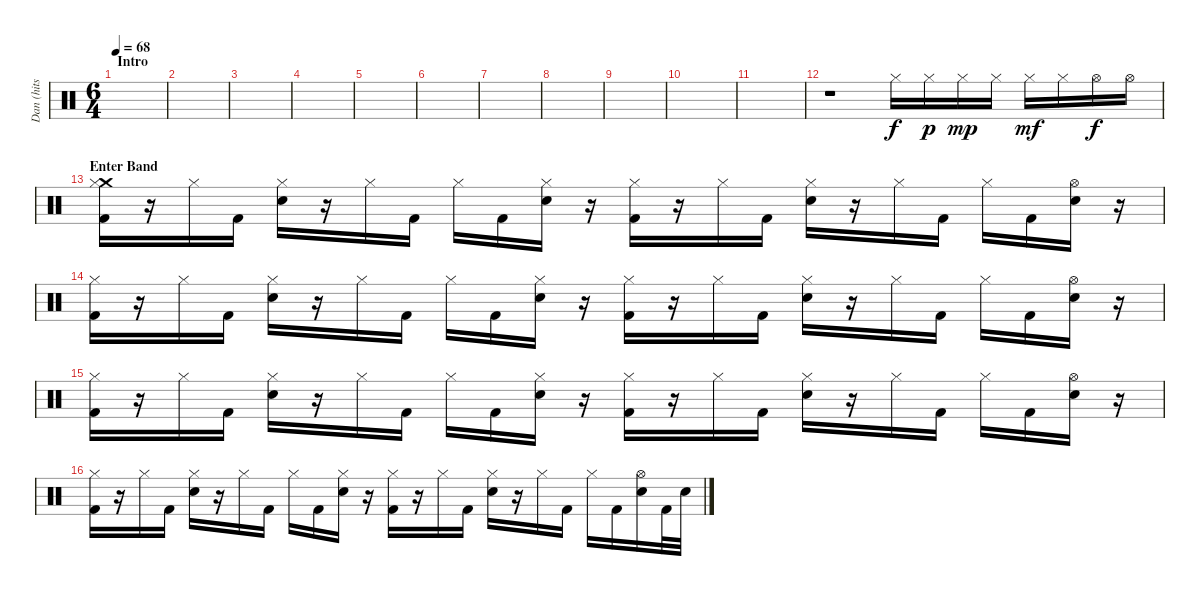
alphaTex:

\track ("Dan (hits stuff. hard)" "Dan (hits ") {instrument percussion}
\staff {score}
\articulation defaults
\ts (6 4)
\section ("" "Intro")
\tempo 68
\clef neutral
\ks c
|
|
|
|
|
|
|
|
|
|
|
r.1 "Hi-Hat (closed)".16 "Hi-Hat (closed)".16{dy p} "Hi-Hat (closed)".16{dy mp} "Hi-Hat (closed)".16 "Hi-Hat (closed)".16{dy mf} "Hi-Hat (closed)".16 "Hi-Hat (open)".16{dy f} "Hi-Hat (open)".16 |
\section ("" "Enter Band")
("Crash medium (hit)" "Hi-Hat (closed)" "Kick (hit) 2").16 r.16 "Hi-Hat (closed)".16 "Kick (hit) 2".16 ("Hi-Hat (closed)" "Electric Snare (hit)").16 r.16 "Hi-Hat (closed)".16 "Kick (hit) 2".16 "Hi-Hat (closed)".16 "Kick (hit) 2".16 ("Hi-Hat (closed)" "Electric Snare (hit)").16 r.16 ("Hi-Hat (closed)" "Kick (hit) 2").16 r.16 "Hi-Hat (closed)".16 "Kick (hit) 2".16 ("Hi-Hat (closed)" "Electric Snare (hit)").16 r.16 "Hi-Hat (closed)".16 "Kick (hit) 2".16 "Hi-Hat (closed)".16 "Kick (hit) 2".16 ("Hi-Hat (open)" "Electric Snare (hit)").16 r.16 |
("Hi-Hat (closed)" "Kick (hit) 2").16 r.16 "Hi-Hat (closed)".16 "Kick (hit) 2".16 ("Hi-Hat (closed)" "Electric Snare (hit)").16 r.16 "Hi-Hat (closed)".16 "Kick (hit) 2".16 "Hi-Hat (closed)".16 "Kick (hit) 2".16 ("Hi-Hat (closed)" "Electric Snare (hit)").16 r.16 ("Hi-Hat (closed)" "Kick (hit) 2").16 r.16 "Hi-Hat (closed)".16 "Kick (hit) 2".16 ("Hi-Hat (closed)" "Electric Snare (hit)").16 r.16 "Hi-Hat (closed)".16 "Kick (hit) 2".16 "Hi-Hat (closed)".16 "Kick (hit) 2".16 ("Hi-Hat (open)" "Electric Snare (hit)").16 r.16 |
("Hi-Hat (closed)" "Kick (hit) 2").16 r.16 "Hi-Hat (closed)".16 "Kick (hit) 2".16 ("Hi-Hat (closed)" "Electric Snare (hit)").16 r.16 "Hi-Hat (closed)".16 "Kick (hit) 2".16 "Hi-Hat (closed)".16 "Kick (hit) 2".16 ("Hi-Hat (closed)" "Electric Snare (hit)").16 r.16 ("Hi-Hat (closed)" "Kick (hit) 2").16 r.16 "Hi-Hat (closed)".16 "Kick (hit) 2".16 ("Hi-Hat (closed)" "Electric Snare (hit)").16 r.16 "Hi-Hat (closed)".16 "Kick (hit) 2".16 "Hi-Hat (closed)".16 "Kick (hit) 2".16 ("Hi-Hat (open)" "Electric Snare (hit)").16 r.16 |
("Hi-Hat (closed)" "Kick (hit) 2").16 r.16 "Hi-Hat (closed)".16 "Kick (hit) 2".16 ("Hi-Hat (closed)" "Electric Snare (hit)").16 r.16 "Hi-Hat (closed)".16 "Kick (hit) 2".16 "Hi-Hat (closed)".16 "Kick (hit) 2".16 ("Hi-Hat (closed)" "Electric Snare (hit)").16 r.16 ("Hi-Hat (closed)" "Kick (hit) 2").16 r.16 "Hi-Hat (closed)".16 "Kick (hit) 2".16 ("Hi-Hat (closed)" "Electric Snare (hit)").16 r.16 "Hi-Hat (closed)".16 "Kick (hit) 2".16 "Hi-Hat (closed)".16 "Kick (hit) 2".16 ("Hi-Hat (open)" "Electric Snare (hit)").16 "Kick (hit) 2".32 "Electric Snare (hit)".32
